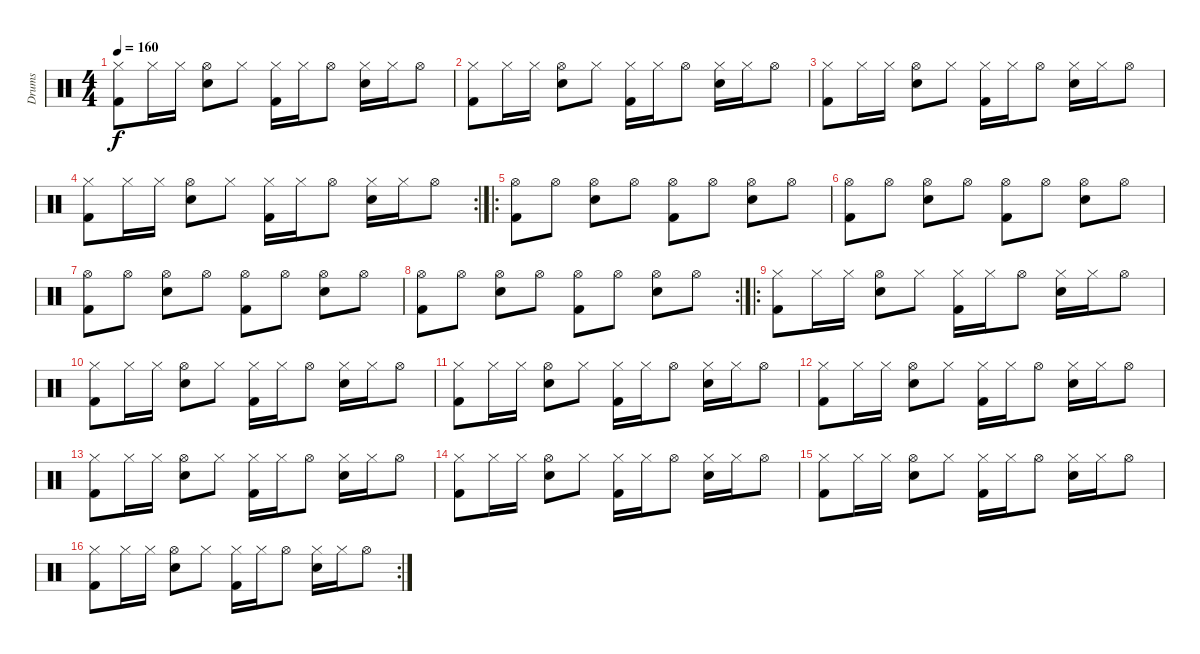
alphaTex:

\track ("Drums" "Drums") {instrument percussion}
\staff {score}
\articulation defaults
\ts (4 4)
\tempo 160
\clef neutral
\ks c
("Hi-Hat (closed)" "Kick (hit) 2").8{dy f} "Hi-Hat (closed)".16 "Hi-Hat (closed)".16 ("Hi-Hat (open)" "Snare (hit) 2").8 "Hi-Hat (closed)".8 ("Hi-Hat (closed)" "Kick (hit) 2").16 "Hi-Hat (closed)".16 "Hi-Hat (open)".8 ("Hi-Hat (closed)" "Snare (hit) 2").16 "Hi-Hat (closed)".16 "Hi-Hat (open)".8 |
("Hi-Hat (closed)" "Kick (hit) 2").8 "Hi-Hat (closed)".16 "Hi-Hat (closed)".16 ("Hi-Hat (open)" "Snare (hit) 2").8 "Hi-Hat (closed)".8 ("Hi-Hat (closed)" "Kick (hit) 2").16 "Hi-Hat (closed)".16 "Hi-Hat (open)".8 ("Hi-Hat (closed)" "Snare (hit) 2").16 "Hi-Hat (closed)".16 "Hi-Hat (open)".8 |
("Hi-Hat (closed)" "Kick (hit) 2").8 "Hi-Hat (closed)".16 "Hi-Hat (closed)".16 ("Hi-Hat (open)" "Snare (hit) 2").8 "Hi-Hat (closed)".8 ("Hi-Hat (closed)" "Kick (hit) 2").16 "Hi-Hat (closed)".16 "Hi-Hat (open)".8 ("Hi-Hat (closed)" "Snare (hit) 2").16 "Hi-Hat (closed)".16 "Hi-Hat (open)".8 |
\rc 2
("Hi-Hat (closed)" "Kick (hit) 2").8 "Hi-Hat (closed)".16 "Hi-Hat (closed)".16 ("Hi-Hat (open)" "Snare (hit) 2").8 "Hi-Hat (closed)".8 ("Hi-Hat (closed)" "Kick (hit) 2").16 "Hi-Hat (closed)".16 "Hi-Hat (open)".8 ("Hi-Hat (closed)" "Snare (hit) 2").16 "Hi-Hat (closed)".16 "Hi-Hat (open)".8 |
\ro
("Hi-Hat (open)" "Kick (hit) 2").8 "Hi-Hat (open)".8 ("Hi-Hat (open)" "Snare (hit) 2").8 "Hi-Hat (open)".8 ("Hi-Hat (open)" "Kick (hit) 2").8 "Hi-Hat (open)".8 ("Hi-Hat (open)" "Snare (hit) 2").8 "Hi-Hat (open)".8 |
("Hi-Hat (open)" "Kick (hit) 2").8 "Hi-Hat (open)".8 ("Hi-Hat (open)" "Snare (hit) 2").8 "Hi-Hat (open)".8 ("Hi-Hat (open)" "Kick (hit) 2").8 "Hi-Hat (open)".8 ("Hi-Hat (open)" "Snare (hit) 2").8 "Hi-Hat (open)".8 |
("Hi-Hat (open)" "Kick (hit) 2").8 "Hi-Hat (open)".8 ("Hi-Hat (open)" "Snare (hit) 2").8 "Hi-Hat (open)".8 ("Hi-Hat (open)" "Kick (hit) 2").8 "Hi-Hat (open)".8 ("Hi-Hat (open)" "Snare (hit) 2").8 "Hi-Hat (open)".8 |
\rc 2
("Hi-Hat (open)" "Kick (hit) 2").8 "Hi-Hat (open)".8 ("Hi-Hat (open)" "Snare (hit) 2").8 "Hi-Hat (open)".8 ("Hi-Hat (open)" "Kick (hit) 2").8 "Hi-Hat (open)".8 ("Hi-Hat (open)" "Snare (hit) 2").8 "Hi-Hat (open)".8 |
\ro
("Hi-Hat (closed)" "Kick (hit) 2").8 "Hi-Hat (closed)".16 "Hi-Hat (closed)".16 ("Hi-Hat (open)" "Snare (hit) 2").8 "Hi-Hat (closed)".8 ("Hi-Hat (closed)" "Kick (hit) 2").16 "Hi-Hat (closed)".16 "Hi-Hat (open)".8 ("Hi-Hat (closed)" "Snare (hit) 2").16 "Hi-Hat (closed)".16 "Hi-Hat (open)".8 |
("Hi-Hat (closed)" "Kick (hit) 2").8 "Hi-Hat (closed)".16 "Hi-Hat (closed)".16 ("Hi-Hat (open)" "Snare (hit) 2").8 "Hi-Hat (closed)".8 ("Hi-Hat (closed)" "Kick (hit) 2").16 "Hi-Hat (closed)".16 "Hi-Hat (open)".8 ("Hi-Hat (closed)" "Snare (hit) 2").16 "Hi-Hat (closed)".16 "Hi-Hat (open)".8 |
("Hi-Hat (closed)" "Kick (hit) 2").8 "Hi-Hat (closed)".16 "Hi-Hat (closed)".16 ("Hi-Hat (open)" "Snare (hit) 2").8 "Hi-Hat (closed)".8 ("Hi-Hat (closed)" "Kick (hit) 2").16 "Hi-Hat (closed)".16 "Hi-Hat (open)".8 ("Hi-Hat (closed)" "Snare (hit) 2").16 "Hi-Hat (closed)".16 "Hi-Hat (open)".8 |
("Hi-Hat (closed)" "Kick (hit) 2").8 "Hi-Hat (closed)".16 "Hi-Hat (closed)".16 ("Hi-Hat (open)" "Snare (hit) 2").8 "Hi-Hat (closed)".8 ("Hi-Hat (closed)" "Kick (hit) 2").16 "Hi-Hat (closed)".16 "Hi-Hat (open)".8 ("Hi-Hat (closed)" "Snare (hit) 2").16 "Hi-Hat (closed)".16 "Hi-Hat (open)".8 |
("Hi-Hat (closed)" "Kick (hit) 2").8 "Hi-Hat (closed)".16 "Hi-Hat (closed)".16 ("Hi-Hat (open)" "Snare (hit) 2").8 "Hi-Hat (closed)".8 ("Hi-Hat (closed)" "Kick (hit) 2").16 "Hi-Hat (closed)".16 "Hi-Hat (open)".8 ("Hi-Hat (closed)" "Snare (hit) 2").16 "Hi-Hat (closed)".16 "Hi-Hat (open)".8 |
("Hi-Hat (closed)" "Kick (hit) 2").8 "Hi-Hat (closed)".16 "Hi-Hat (closed)".16 ("Hi-Hat (open)" "Snare (hit) 2").8 "Hi-Hat (closed)".8 ("Hi-Hat (closed)" "Kick (hit) 2").16 "Hi-Hat (closed)".16 "Hi-Hat (open)".8 ("Hi-Hat (closed)" "Snare (hit) 2").16 "Hi-Hat (closed)".16 "Hi-Hat (open)".8 |
("Hi-Hat (closed)" "Kick (hit) 2").8 "Hi-Hat (closed)".16 "Hi-Hat (closed)".16 ("Hi-Hat (open)" "Snare (hit) 2").8 "Hi-Hat (closed)".8 ("Hi-Hat (closed)" "Kick (hit) 2").16 "Hi-Hat (closed)".16 "Hi-Hat (open)".8 ("Hi-Hat (closed)" "Snare (hit) 2").16 "Hi-Hat (closed)".16 "Hi-Hat (open)".8 |
\rc 2
("Hi-Hat (closed)" "Kick (hit) 2").8 "Hi-Hat (closed)".16 "Hi-Hat (closed)".16 ("Hi-Hat (open)" "Snare (hit) 2").8 "Hi-Hat (closed)".8 ("Hi-Hat (closed)" "Kick (hit) 2").16 "Hi-Hat (closed)".16 "Hi-Hat (open)".8 ("Hi-Hat (closed)" "Snare (hit) 2").16 "Hi-Hat (closed)".16 "Hi-Hat (open)".8
